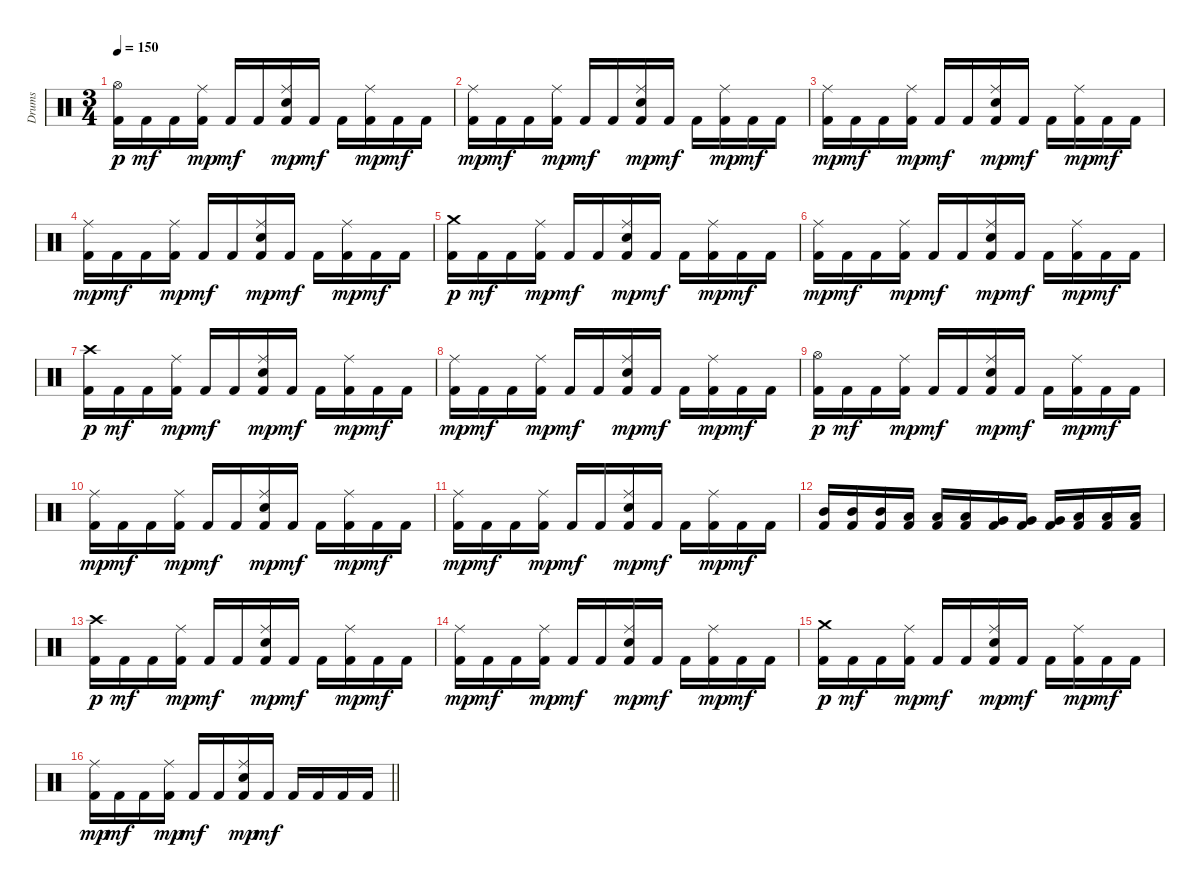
\track ("Drums" "Drums") {instrument percussion}
\staff {score}
\articulation defaults
\ts (3 4)
\tempo 150
\clef neutral
\ks c
("Kick (hit) 2" "Hi-Hat (open)").16{dy p} "Kick (hit) 2".16{dy mf} "Kick (hit) 2".16 ("Kick (hit) 2" "Ride (middle)").16{dy mp} "Kick (hit) 2".16{dy mf} "Kick (hit) 2".16 ("Kick (hit) 2" "Ride (middle)" "Snare (hit) 2").16{dy mp} "Kick (hit) 2".16{dy mf} "Kick (hit) 2".16 ("Kick (hit) 2" "Ride (middle)").16{dy mp} "Kick (hit) 2".16{dy mf} "Kick (hit) 2".16 |
("Kick (hit) 2" "Ride (middle)").16{dy mp} "Kick (hit) 2".16{dy mf} "Kick (hit) 2".16 ("Kick (hit) 2" "Ride (middle)").16{dy mp} "Kick (hit) 2".16{dy mf} "Kick (hit) 2".16 ("Kick (hit) 2" "Ride (middle)" "Snare (hit) 2").16{dy mp} "Kick (hit) 2".16{dy mf} "Kick (hit) 2".16 ("Kick (hit) 2" "Ride (middle)").16{dy mp} "Kick (hit) 2".16{dy mf} "Kick (hit) 2".16 |
("Kick (hit) 2" "Ride (middle)").16{dy mp} "Kick (hit) 2".16{dy mf} "Kick (hit) 2".16 ("Kick (hit) 2" "Ride (middle)").16{dy mp} "Kick (hit) 2".16{dy mf} "Kick (hit) 2".16 ("Kick (hit) 2" "Ride (middle)" "Snare (hit) 2").16{dy mp} "Kick (hit) 2".16{dy mf} "Kick (hit) 2".16 ("Kick (hit) 2" "Ride (middle)").16{dy mp} "Kick (hit) 2".16{dy mf} "Kick (hit) 2".16 |
("Kick (hit) 2" "Ride (middle)").16{dy mp} "Kick (hit) 2".16{dy mf} "Kick (hit) 2".16 ("Kick (hit) 2" "Ride (middle)").16{dy mp} "Kick (hit) 2".16{dy mf} "Kick (hit) 2".16 ("Kick (hit) 2" "Ride (middle)" "Snare (hit) 2").16{dy mp} "Kick (hit) 2".16{dy mf} "Kick (hit) 2".16 ("Kick (hit) 2" "Ride (middle)").16{dy mp} "Kick (hit) 2".16{dy mf} "Kick (hit) 2".16 |
("Kick (hit) 2" "Crash medium (hit)").16{dy p} "Kick (hit) 2".16{dy mf} "Kick (hit) 2".16 ("Kick (hit) 2" "Ride (middle)").16{dy mp} "Kick (hit) 2".16{dy mf} "Kick (hit) 2".16 ("Kick (hit) 2" "Ride (middle)" "Snare (hit) 2").16{dy mp} "Kick (hit) 2".16{dy mf} "Kick (hit) 2".16 ("Kick (hit) 2" "Ride (middle)").16{dy mp} "Kick (hit) 2".16{dy mf} "Kick (hit) 2".16 |
("Kick (hit) 2" "Ride (middle)").16{dy mp} "Kick (hit) 2".16{dy mf} "Kick (hit) 2".16 ("Kick (hit) 2" "Ride (middle)").16{dy mp} "Kick (hit) 2".16{dy mf} "Kick (hit) 2".16 ("Kick (hit) 2" "Ride (middle)" "Snare (hit) 2").16{dy mp} "Kick (hit) 2".16{dy mf} "Kick (hit) 2".16 ("Kick (hit) 2" "Ride (middle)").16{dy mp} "Kick (hit) 2".16{dy mf} "Kick (hit) 2".16 |
("Kick (hit) 2" "Crash high (hit)").16{dy p} "Kick (hit) 2".16{dy mf} "Kick (hit) 2".16 ("Kick (hit) 2" "Ride (middle)").16{dy mp} "Kick (hit) 2".16{dy mf} "Kick (hit) 2".16 ("Kick (hit) 2" "Ride (middle)" "Snare (hit) 2").16{dy mp} "Kick (hit) 2".16{dy mf} "Kick (hit) 2".16 ("Kick (hit) 2" "Ride (middle)").16{dy mp} "Kick (hit) 2".16{dy mf} "Kick (hit) 2".16 |
("Kick (hit) 2" "Ride (middle)").16{dy mp} "Kick (hit) 2".16{dy mf} "Kick (hit) 2".16 ("Kick (hit) 2" "Ride (middle)").16{dy mp} "Kick (hit) 2".16{dy mf} "Kick (hit) 2".16 ("Kick (hit) 2" "Ride (middle)" "Snare (hit) 2").16{dy mp} "Kick (hit) 2".16{dy mf} "Kick (hit) 2".16 ("Kick (hit) 2" "Ride (middle)").16{dy mp} "Kick (hit) 2".16{dy mf} "Kick (hit) 2".16 |
("Kick (hit) 2" "Hi-Hat (open)").16{dy p} "Kick (hit) 2".16{dy mf} "Kick (hit) 2".16 ("Kick (hit) 2" "Ride (middle)").16{dy mp} "Kick (hit) 2".16{dy mf} "Kick (hit) 2".16 ("Kick (hit) 2" "Ride (middle)" "Snare (hit) 2").16{dy mp} "Kick (hit) 2".16{dy mf} "Kick (hit) 2".16 ("Kick (hit) 2" "Ride (middle)").16{dy mp} "Kick (hit) 2".16{dy mf} "Kick (hit) 2".16 |
("Kick (hit) 2" "Ride (middle)").16{dy mp} "Kick (hit) 2".16{dy mf} "Kick (hit) 2".16 ("Kick (hit) 2" "Ride (middle)").16{dy mp} "Kick (hit) 2".16{dy mf} "Kick (hit) 2".16 ("Kick (hit) 2" "Ride (middle)" "Snare (hit) 2").16{dy mp} "Kick (hit) 2".16{dy mf} "Kick (hit) 2".16 ("Kick (hit) 2" "Ride (middle)").16{dy mp} "Kick (hit) 2".16{dy mf} "Kick (hit) 2".16 |
("Kick (hit) 2" "Ride (middle)").16{dy mp} "Kick (hit) 2".16{dy mf} "Kick (hit) 2".16 ("Kick (hit) 2" "Ride (middle)").16{dy mp} "Kick (hit) 2".16{dy mf} "Kick (hit) 2".16 ("Kick (hit) 2" "Ride (middle)" "Snare (hit) 2").16{dy mp} "Kick (hit) 2".16{dy mf} "Kick (hit) 2".16 ("Kick (hit) 2" "Ride (middle)").16{dy mp} "Kick (hit) 2".16{dy mf} "Kick (hit) 2".16 |
("Kick (hit) 2" "Mid Tom (hit)").16 ("Kick (hit) 2" "Mid Tom (hit)").16 ("Kick (hit) 2" "Mid Tom (hit)").16 ("Kick (hit) 2" "Low Tom (hit)").16 ("Kick (hit) 2" "Low Tom (hit)").16 ("Kick (hit) 2" "Low Tom (hit)").16 ("Kick (hit) 2" "Very Low Tom (hit)").16 ("Kick (hit) 2" "Very Low Tom (hit)").16 ("Kick (hit) 2" "Very Low Tom (hit)").16 ("Kick (hit) 2" "Low Floor Tom (hit)").16 ("Kick (hit) 2" "Low Floor Tom (hit)").16 ("Kick (hit) 2" "Low Floor Tom (hit)").16 |
("Kick (hit) 2" "Crash high (hit)").16{dy p} "Kick (hit) 2".16{dy mf} "Kick (hit) 2".16 ("Kick (hit) 2" "Ride (middle)").16{dy mp} "Kick (hit) 2".16{dy mf} "Kick (hit) 2".16 ("Kick (hit) 2" "Ride (middle)" "Snare (hit) 2").16{dy mp} "Kick (hit) 2".16{dy mf} "Kick (hit) 2".16 ("Kick (hit) 2" "Ride (middle)").16{dy mp} "Kick (hit) 2".16{dy mf} "Kick (hit) 2".16 |
("Kick (hit) 2" "Ride (middle)").16{dy mp} "Kick (hit) 2".16{dy mf} "Kick (hit) 2".16 ("Kick (hit) 2" "Ride (middle)").16{dy mp} "Kick (hit) 2".16{dy mf} "Kick (hit) 2".16 ("Kick (hit) 2" "Ride (middle)" "Snare (hit) 2").16{dy mp} "Kick (hit) 2".16{dy mf} "Kick (hit) 2".16 ("Kick (hit) 2" "Ride (middle)").16{dy mp} "Kick (hit) 2".16{dy mf} "Kick (hit) 2".16 |
("Kick (hit) 2" "Crash medium (hit)").16{dy p} "Kick (hit) 2".16{dy mf} "Kick (hit) 2".16 ("Kick (hit) 2" "Ride (middle)").16{dy mp} "Kick (hit) 2".16{dy mf} "Kick (hit) 2".16 ("Kick (hit) 2" "Ride (middle)" "Snare (hit) 2").16{dy mp} "Kick (hit) 2".16{dy mf} "Kick (hit) 2".16 ("Kick (hit) 2" "Ride (middle)").16{dy mp} "Kick (hit) 2".16{dy mf} "Kick (hit) 2".16 |
\barLineRight lightlight
("Kick (hit) 2" "Ride (middle)").16{dy mp} "Kick (hit) 2".16{dy mf} "Kick (hit) 2".16 ("Kick (hit) 2" "Ride (middle)").16{dy mp} "Kick (hit) 2".16{dy mf} "Kick (hit) 2".16 ("Kick (hit) 2" "Ride (middle)" "Snare (hit) 2").16{dy mp} "Kick (hit) 2".16{dy mf} "Kick (hit) 2".16 "Kick (hit) 2".16 "Kick (hit) 2".16 "Kick (hit) 2".16
